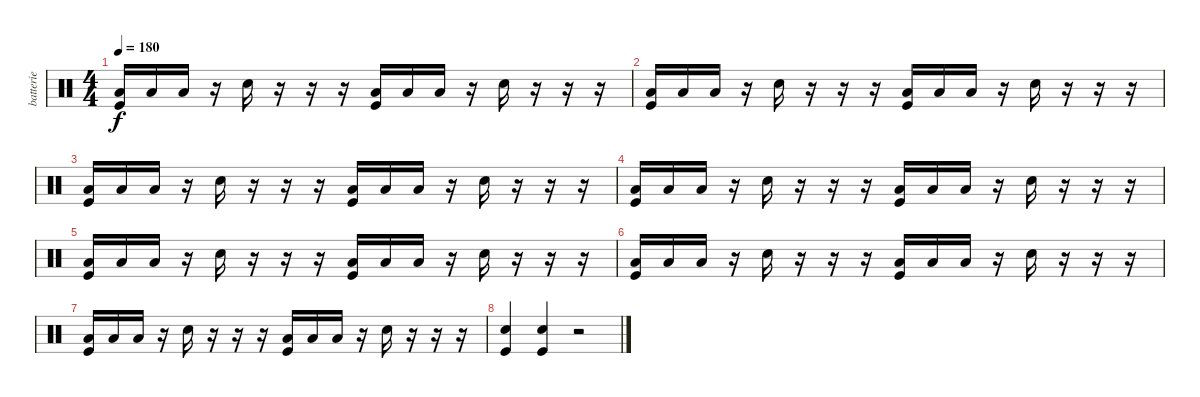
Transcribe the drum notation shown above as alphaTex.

\track ("batterie" "batterie") {instrument percussion}
\staff {score}
\articulation defaults
\ts (4 4)
\tempo 180
\clef neutral
\ks c
("Low Floor Tom (hit)" "Kick (hit)").16{dy f} "Low Floor Tom (hit)".16 "Low Floor Tom (hit)".16 r.16 "Snare (hit) 2".16 r.16 r.16 r.16 ("Low Floor Tom (hit)" "Kick (hit)").16 "Low Floor Tom (hit)".16 "Low Floor Tom (hit)".16 r.16 "Snare (hit) 2".16 r.16 r.16 r.16 |
("Low Floor Tom (hit)" "Kick (hit)").16 "Low Floor Tom (hit)".16 "Low Floor Tom (hit)".16 r.16 "Snare (hit) 2".16 r.16 r.16 r.16 ("Low Floor Tom (hit)" "Kick (hit)").16 "Low Floor Tom (hit)".16 "Low Floor Tom (hit)".16 r.16 "Snare (hit) 2".16 r.16 r.16 r.16 |
("Low Floor Tom (hit)" "Kick (hit)").16 "Low Floor Tom (hit)".16 "Low Floor Tom (hit)".16 r.16 "Snare (hit) 2".16 r.16 r.16 r.16 ("Low Floor Tom (hit)" "Kick (hit)").16 "Low Floor Tom (hit)".16 "Low Floor Tom (hit)".16 r.16 "Snare (hit) 2".16 r.16 r.16 r.16 |
("Low Floor Tom (hit)" "Kick (hit)").16 "Low Floor Tom (hit)".16 "Low Floor Tom (hit)".16 r.16 "Snare (hit) 2".16 r.16 r.16 r.16 ("Low Floor Tom (hit)" "Kick (hit)").16 "Low Floor Tom (hit)".16 "Low Floor Tom (hit)".16 r.16 "Snare (hit) 2".16 r.16 r.16 r.16 |
("Low Floor Tom (hit)" "Kick (hit)").16 "Low Floor Tom (hit)".16 "Low Floor Tom (hit)".16 r.16 "Snare (hit) 2".16 r.16 r.16 r.16 ("Low Floor Tom (hit)" "Kick (hit)").16 "Low Floor Tom (hit)".16 "Low Floor Tom (hit)".16 r.16 "Snare (hit) 2".16 r.16 r.16 r.16 |
("Low Floor Tom (hit)" "Kick (hit)").16 "Low Floor Tom (hit)".16 "Low Floor Tom (hit)".16 r.16 "Snare (hit) 2".16 r.16 r.16 r.16 ("Low Floor Tom (hit)" "Kick (hit)").16 "Low Floor Tom (hit)".16 "Low Floor Tom (hit)".16 r.16 "Snare (hit) 2".16 r.16 r.16 r.16 |
("Low Floor Tom (hit)" "Kick (hit)").16 "Low Floor Tom (hit)".16 "Low Floor Tom (hit)".16 r.16 "Snare (hit) 2".16 r.16 r.16 r.16 ("Low Floor Tom (hit)" "Kick (hit)").16 "Low Floor Tom (hit)".16 "Low Floor Tom (hit)".16 r.16 "Snare (hit) 2".16 r.16 r.16 r.16 |
("Snare (hit) 2" "Kick (hit)").4 ("Snare (hit) 2" "Kick (hit)").4 r.2
